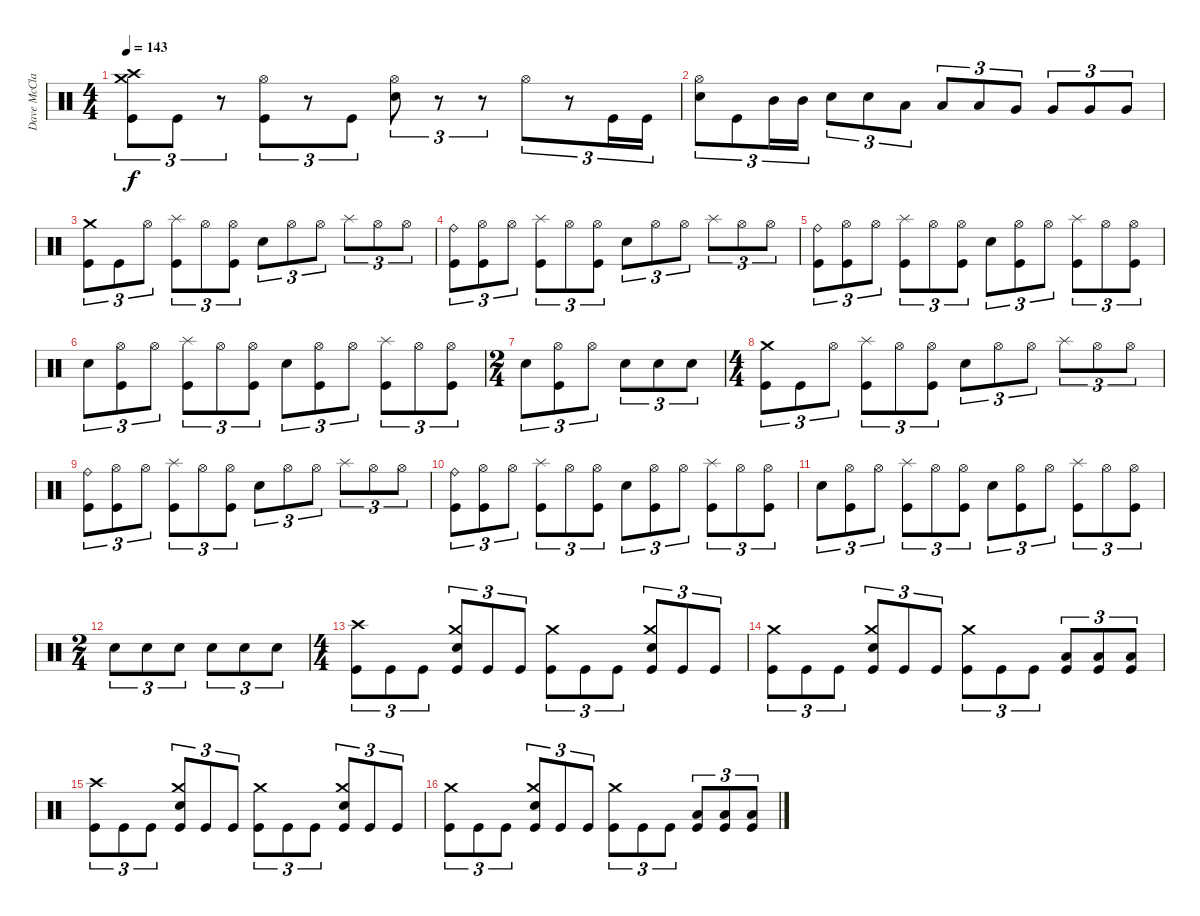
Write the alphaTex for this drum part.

\track ("Dave McClaine" "Dave McCla") {instrument percussion}
\staff {score}
\articulation defaults
\ts (4 4)
\tempo 143
\clef neutral
\ks c
("Kick (hit)" "Crash high (hit)" "Crash medium (hit)").8{tu (3 2) dy f} "Kick (hit)".8{tu (3 2)} r.8{tu (3 2)} ("Hi-Hat (open)" "Kick (hit)").8{tu (3 2)} r.8{tu (3 2)} "Kick (hit)".8{tu (3 2)} ("Snare (hit) 2" "Hi-Hat (open)").8{tu (3 2)} r.8{tu (3 2)} r.8{tu (3 2)} "Hi-Hat (open)".8{tu (3 2)} r.8{tu (3 2)} "Kick (hit)".16{tu (3 2)} "Kick (hit)".16{tu (3 2)} |
("Snare (hit) 2" "Hi-Hat (open)").8{tu (3 2)} "Kick (hit)".8{tu (3 2)} "Mid Tom (hit)".16{tu (3 2)} "Mid Tom (hit)".16{tu (3 2)} "Snare (hit) 2".8{tu (3 2)} "Snare (hit) 2".8{tu (3 2)} "Low Tom (hit)".8{tu (3 2)} "Low Tom (hit)".8{tu (3 2)} "Low Tom (hit)".8{tu (3 2)} "Very Low Tom (hit)".8{tu (3 2)} "Very Low Tom (hit)".8{tu (3 2)} "Very Low Tom (hit)".8{tu (3 2)} "Very Low Tom (hit)".8{tu (3 2)} |
("Kick (hit)" "Crash medium (hit)").8{tu (3 2)} "Kick (hit)".8{tu (3 2)} "Hi-Hat (open)".8{tu (3 2)} ("Kick (hit)" "Splash (hit)").8{tu (3 2)} "Hi-Hat (open)".8{tu (3 2)} ("Kick (hit)" "Hi-Hat (open)").8{tu (3 2)} "Snare (hit) 2".8{tu (3 2)} "Hi-Hat (open)".8{tu (3 2)} "Hi-Hat (open)".8{tu (3 2)} "Splash (hit)".8{tu (3 2)} "Hi-Hat (open)".8{tu (3 2)} "Hi-Hat (open)".8{tu (3 2)} |
("Kick (hit)" "Ride (bell)").8{tu (3 2)} ("Kick (hit)" "Hi-Hat (open)").8{tu (3 2)} "Hi-Hat (open)".8{tu (3 2)} ("Kick (hit)" "Splash (hit)").8{tu (3 2)} "Hi-Hat (open)".8{tu (3 2)} ("Kick (hit)" "Hi-Hat (open)").8{tu (3 2)} "Snare (hit) 2".8{tu (3 2)} "Hi-Hat (open)".8{tu (3 2)} "Hi-Hat (open)".8{tu (3 2)} "Splash (hit)".8{tu (3 2)} "Hi-Hat (open)".8{tu (3 2)} "Hi-Hat (open)".8{tu (3 2)} |
("Kick (hit)" "Ride (bell)").8{tu (3 2)} ("Kick (hit)" "Hi-Hat (open)").8{tu (3 2)} "Hi-Hat (open)".8{tu (3 2)} ("Kick (hit)" "Splash (hit)").8{tu (3 2)} "Hi-Hat (open)".8{tu (3 2)} ("Kick (hit)" "Hi-Hat (open)").8{tu (3 2)} "Snare (hit) 2".8{tu (3 2)} ("Hi-Hat (open)" "Kick (hit)").8{tu (3 2)} "Hi-Hat (open)".8{tu (3 2)} ("Splash (hit)" "Kick (hit)").8{tu (3 2)} "Hi-Hat (open)".8{tu (3 2)} ("Hi-Hat (open)" "Kick (hit)").8{tu (3 2)} |
"Snare (hit) 2".8{tu (3 2)} ("Kick (hit)" "Hi-Hat (open)").8{tu (3 2)} "Hi-Hat (open)".8{tu (3 2)} ("Kick (hit)" "Splash (hit)").8{tu (3 2)} "Hi-Hat (open)".8{tu (3 2)} ("Kick (hit)" "Hi-Hat (open)").8{tu (3 2)} "Snare (hit) 2".8{tu (3 2)} ("Hi-Hat (open)" "Kick (hit)").8{tu (3 2)} "Hi-Hat (open)".8{tu (3 2)} ("Splash (hit)" "Kick (hit)").8{tu (3 2)} "Hi-Hat (open)".8{tu (3 2)} ("Hi-Hat (open)" "Kick (hit)").8{tu (3 2)} |
\ts (2 4)
"Snare (hit) 2".8{tu (3 2)} ("Kick (hit)" "Hi-Hat (open)").8{tu (3 2)} "Hi-Hat (open)".8{tu (3 2)} "Snare (hit) 2".8{tu (3 2)} "Snare (hit) 2".8{tu (3 2)} "Snare (hit) 2".8{tu (3 2)} |
\ts (4 4)
("Kick (hit)" "Crash medium (hit)").8{tu (3 2)} "Kick (hit)".8{tu (3 2)} "Hi-Hat (open)".8{tu (3 2)} ("Kick (hit)" "Splash (hit)").8{tu (3 2)} "Hi-Hat (open)".8{tu (3 2)} ("Kick (hit)" "Hi-Hat (open)").8{tu (3 2)} "Snare (hit) 2".8{tu (3 2)} "Hi-Hat (open)".8{tu (3 2)} "Hi-Hat (open)".8{tu (3 2)} "Splash (hit)".8{tu (3 2)} "Hi-Hat (open)".8{tu (3 2)} "Hi-Hat (open)".8{tu (3 2)} |
("Kick (hit)" "Ride (bell)").8{tu (3 2)} ("Kick (hit)" "Hi-Hat (open)").8{tu (3 2)} "Hi-Hat (open)".8{tu (3 2)} ("Kick (hit)" "Splash (hit)").8{tu (3 2)} "Hi-Hat (open)".8{tu (3 2)} ("Kick (hit)" "Hi-Hat (open)").8{tu (3 2)} "Snare (hit) 2".8{tu (3 2)} "Hi-Hat (open)".8{tu (3 2)} "Hi-Hat (open)".8{tu (3 2)} "Splash (hit)".8{tu (3 2)} "Hi-Hat (open)".8{tu (3 2)} "Hi-Hat (open)".8{tu (3 2)} |
("Kick (hit)" "Ride (bell)").8{tu (3 2)} ("Kick (hit)" "Hi-Hat (open)").8{tu (3 2)} "Hi-Hat (open)".8{tu (3 2)} ("Kick (hit)" "Splash (hit)").8{tu (3 2)} "Hi-Hat (open)".8{tu (3 2)} ("Kick (hit)" "Hi-Hat (open)").8{tu (3 2)} "Snare (hit) 2".8{tu (3 2)} ("Hi-Hat (open)" "Kick (hit)").8{tu (3 2)} "Hi-Hat (open)".8{tu (3 2)} ("Splash (hit)" "Kick (hit)").8{tu (3 2)} "Hi-Hat (open)".8{tu (3 2)} ("Hi-Hat (open)" "Kick (hit)").8{tu (3 2)} |
"Snare (hit) 2".8{tu (3 2)} ("Kick (hit)" "Hi-Hat (open)").8{tu (3 2)} "Hi-Hat (open)".8{tu (3 2)} ("Kick (hit)" "Splash (hit)").8{tu (3 2)} "Hi-Hat (open)".8{tu (3 2)} ("Kick (hit)" "Hi-Hat (open)").8{tu (3 2)} "Snare (hit) 2".8{tu (3 2)} ("Hi-Hat (open)" "Kick (hit)").8{tu (3 2)} "Hi-Hat (open)".8{tu (3 2)} ("Splash (hit)" "Kick (hit)").8{tu (3 2)} "Hi-Hat (open)".8{tu (3 2)} ("Hi-Hat (open)" "Kick (hit)").8{tu (3 2)} |
\ts (2 4)
"Snare (hit) 2".8{tu (3 2)} "Snare (hit) 2".8{tu (3 2)} "Snare (hit) 2".8{tu (3 2)} "Snare (hit) 2".8{tu (3 2)} "Snare (hit) 2".8{tu (3 2)} "Snare (hit) 2".8{tu (3 2)} |
\ts (4 4)
("Kick (hit)" "Crash high (hit)").8{tu (3 2)} "Kick (hit)".8{tu (3 2)} "Kick (hit)".8{tu (3 2)} ("Kick (hit)" "Crash medium (hit)" "Snare (hit) 2").8{tu (3 2)} "Kick (hit)".8{tu (3 2)} "Kick (hit)".8{tu (3 2)} ("Kick (hit)" "Crash medium (hit)").8{tu (3 2)} "Kick (hit)".8{tu (3 2)} "Kick (hit)".8{tu (3 2)} ("Kick (hit)" "Crash medium (hit)" "Snare (hit) 2").8{tu (3 2)} "Kick (hit)".8{tu (3 2)} "Kick (hit)".8{tu (3 2)} |
("Kick (hit)" "Crash medium (hit)").8{tu (3 2)} "Kick (hit)".8{tu (3 2)} "Kick (hit)".8{tu (3 2)} ("Kick (hit)" "Crash medium (hit)" "Snare (hit) 2").8{tu (3 2)} "Kick (hit)".8{tu (3 2)} "Kick (hit)".8{tu (3 2)} ("Kick (hit)" "Crash medium (hit)").8{tu (3 2)} "Kick (hit)".8{tu (3 2)} "Kick (hit)".8{tu (3 2)} ("Kick (hit)" "Low Tom (hit)").8{tu (3 2)} ("Kick (hit)" "Low Tom (hit)").8{tu (3 2)} ("Kick (hit)" "Low Tom (hit)").8{tu (3 2)} |
("Kick (hit)" "Crash high (hit)").8{tu (3 2)} "Kick (hit)".8{tu (3 2)} "Kick (hit)".8{tu (3 2)} ("Kick (hit)" "Crash medium (hit)" "Snare (hit) 2").8{tu (3 2)} "Kick (hit)".8{tu (3 2)} "Kick (hit)".8{tu (3 2)} ("Kick (hit)" "Crash medium (hit)").8{tu (3 2)} "Kick (hit)".8{tu (3 2)} "Kick (hit)".8{tu (3 2)} ("Kick (hit)" "Crash medium (hit)" "Snare (hit) 2").8{tu (3 2)} "Kick (hit)".8{tu (3 2)} "Kick (hit)".8{tu (3 2)} |
("Kick (hit)" "Crash medium (hit)").8{tu (3 2)} "Kick (hit)".8{tu (3 2)} "Kick (hit)".8{tu (3 2)} ("Kick (hit)" "Crash medium (hit)" "Snare (hit) 2").8{tu (3 2)} "Kick (hit)".8{tu (3 2)} "Kick (hit)".8{tu (3 2)} ("Kick (hit)" "Crash medium (hit)").8{tu (3 2)} "Kick (hit)".8{tu (3 2)} "Kick (hit)".8{tu (3 2)} ("Kick (hit)" "Low Tom (hit)").8{tu (3 2)} ("Kick (hit)" "Low Tom (hit)").8{tu (3 2)} ("Kick (hit)" "Low Tom (hit)").8{tu (3 2)}
